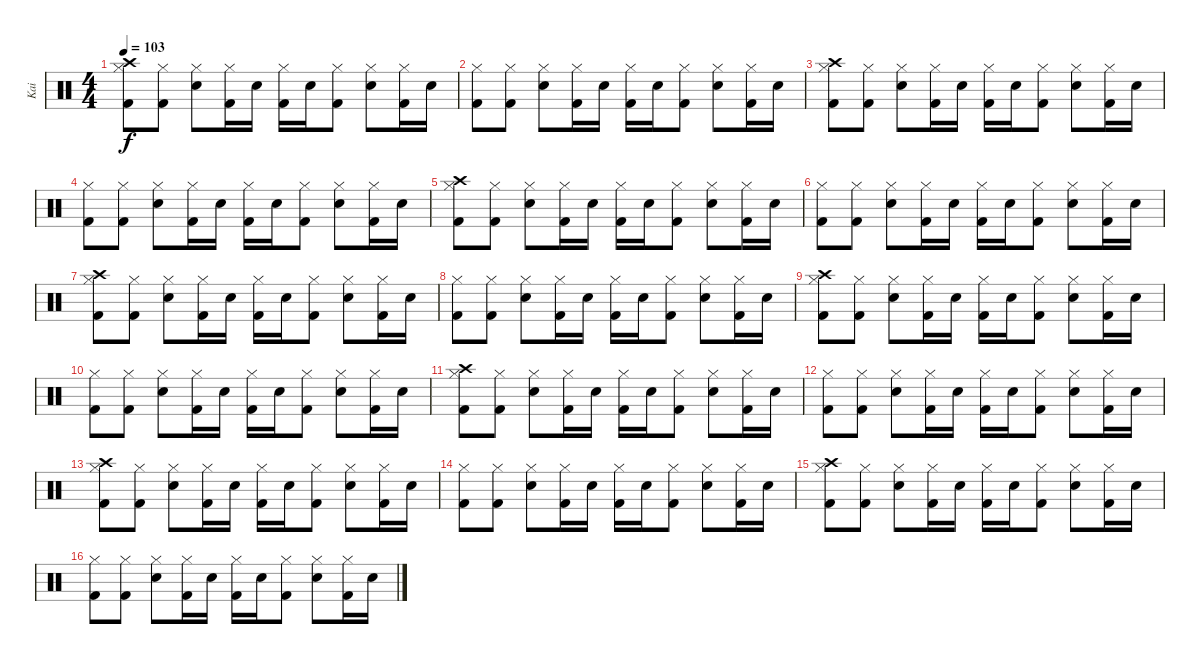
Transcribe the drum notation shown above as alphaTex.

\track ("Kai" "Kai") {instrument percussion}
\staff {score}
\articulation defaults
\ts (4 4)
\tempo 103
\clef neutral
\ks c
("Crash high (hit)" "Hi-Hat (closed)" "Kick (hit) 2").8{dy f} ("Hi-Hat (closed)" "Kick (hit) 2").8 ("Hi-Hat (closed)" "Electric Snare (hit)").8 ("Hi-Hat (closed)" "Kick (hit) 2").16 "Electric Snare (hit)".16 ("Hi-Hat (closed)" "Kick (hit) 2").16 "Electric Snare (hit)".16 ("Hi-Hat (closed)" "Kick (hit) 2").8 ("Hi-Hat (closed)" "Electric Snare (hit)").8 ("Hi-Hat (closed)" "Kick (hit) 2").16 "Electric Snare (hit)".16 |
("Hi-Hat (closed)" "Kick (hit) 2").8 ("Hi-Hat (closed)" "Kick (hit) 2").8 ("Hi-Hat (closed)" "Electric Snare (hit)").8 ("Hi-Hat (closed)" "Kick (hit) 2").16 "Electric Snare (hit)".16 ("Hi-Hat (closed)" "Kick (hit) 2").16 "Electric Snare (hit)".16 ("Hi-Hat (closed)" "Kick (hit) 2").8 ("Hi-Hat (closed)" "Electric Snare (hit)").8 ("Hi-Hat (closed)" "Kick (hit) 2").16 "Electric Snare (hit)".16 |
("Crash high (hit)" "Hi-Hat (closed)" "Kick (hit) 2").8 ("Hi-Hat (closed)" "Kick (hit) 2").8 ("Hi-Hat (closed)" "Electric Snare (hit)").8 ("Hi-Hat (closed)" "Kick (hit) 2").16 "Electric Snare (hit)".16 ("Hi-Hat (closed)" "Kick (hit) 2").16 "Electric Snare (hit)".16 ("Hi-Hat (closed)" "Kick (hit) 2").8 ("Hi-Hat (closed)" "Electric Snare (hit)").8 ("Hi-Hat (closed)" "Kick (hit) 2").16 "Electric Snare (hit)".16 |
("Hi-Hat (closed)" "Kick (hit) 2").8 ("Hi-Hat (closed)" "Kick (hit) 2").8 ("Hi-Hat (closed)" "Electric Snare (hit)").8 ("Hi-Hat (closed)" "Kick (hit) 2").16 "Electric Snare (hit)".16 ("Hi-Hat (closed)" "Kick (hit) 2").16 "Electric Snare (hit)".16 ("Hi-Hat (closed)" "Kick (hit) 2").8 ("Hi-Hat (closed)" "Electric Snare (hit)").8 ("Hi-Hat (closed)" "Kick (hit) 2").16 "Electric Snare (hit)".16 |
("Crash high (hit)" "Hi-Hat (closed)" "Kick (hit) 2").8 ("Hi-Hat (closed)" "Kick (hit) 2").8 ("Hi-Hat (closed)" "Electric Snare (hit)").8 ("Hi-Hat (closed)" "Kick (hit) 2").16 "Electric Snare (hit)".16 ("Hi-Hat (closed)" "Kick (hit) 2").16 "Electric Snare (hit)".16 ("Hi-Hat (closed)" "Kick (hit) 2").8 ("Hi-Hat (closed)" "Electric Snare (hit)").8 ("Hi-Hat (closed)" "Kick (hit) 2").16 "Electric Snare (hit)".16 |
("Hi-Hat (closed)" "Kick (hit) 2").8 ("Hi-Hat (closed)" "Kick (hit) 2").8 ("Hi-Hat (closed)" "Electric Snare (hit)").8 ("Hi-Hat (closed)" "Kick (hit) 2").16 "Electric Snare (hit)".16 ("Hi-Hat (closed)" "Kick (hit) 2").16 "Electric Snare (hit)".16 ("Hi-Hat (closed)" "Kick (hit) 2").8 ("Hi-Hat (closed)" "Electric Snare (hit)").8 ("Hi-Hat (closed)" "Kick (hit) 2").16 "Electric Snare (hit)".16 |
("Crash high (hit)" "Hi-Hat (closed)" "Kick (hit) 2").8 ("Hi-Hat (closed)" "Kick (hit) 2").8 ("Hi-Hat (closed)" "Electric Snare (hit)").8 ("Hi-Hat (closed)" "Kick (hit) 2").16 "Electric Snare (hit)".16 ("Hi-Hat (closed)" "Kick (hit) 2").16 "Electric Snare (hit)".16 ("Hi-Hat (closed)" "Kick (hit) 2").8 ("Hi-Hat (closed)" "Electric Snare (hit)").8 ("Hi-Hat (closed)" "Kick (hit) 2").16 "Electric Snare (hit)".16 |
("Hi-Hat (closed)" "Kick (hit) 2").8 ("Hi-Hat (closed)" "Kick (hit) 2").8 ("Hi-Hat (closed)" "Electric Snare (hit)").8 ("Hi-Hat (closed)" "Kick (hit) 2").16 "Electric Snare (hit)".16 ("Hi-Hat (closed)" "Kick (hit) 2").16 "Electric Snare (hit)".16 ("Hi-Hat (closed)" "Kick (hit) 2").8 ("Hi-Hat (closed)" "Electric Snare (hit)").8 ("Hi-Hat (closed)" "Kick (hit) 2").16 "Electric Snare (hit)".16 |
("Crash high (hit)" "Hi-Hat (closed)" "Kick (hit) 2").8 ("Hi-Hat (closed)" "Kick (hit) 2").8 ("Hi-Hat (closed)" "Electric Snare (hit)").8 ("Hi-Hat (closed)" "Kick (hit) 2").16 "Electric Snare (hit)".16 ("Hi-Hat (closed)" "Kick (hit) 2").16 "Electric Snare (hit)".16 ("Hi-Hat (closed)" "Kick (hit) 2").8 ("Hi-Hat (closed)" "Electric Snare (hit)").8 ("Hi-Hat (closed)" "Kick (hit) 2").16 "Electric Snare (hit)".16 |
("Hi-Hat (closed)" "Kick (hit) 2").8 ("Hi-Hat (closed)" "Kick (hit) 2").8 ("Hi-Hat (closed)" "Electric Snare (hit)").8 ("Hi-Hat (closed)" "Kick (hit) 2").16 "Electric Snare (hit)".16 ("Hi-Hat (closed)" "Kick (hit) 2").16 "Electric Snare (hit)".16 ("Hi-Hat (closed)" "Kick (hit) 2").8 ("Hi-Hat (closed)" "Electric Snare (hit)").8 ("Hi-Hat (closed)" "Kick (hit) 2").16 "Electric Snare (hit)".16 |
("Crash high (hit)" "Hi-Hat (closed)" "Kick (hit) 2").8 ("Hi-Hat (closed)" "Kick (hit) 2").8 ("Hi-Hat (closed)" "Electric Snare (hit)").8 ("Hi-Hat (closed)" "Kick (hit) 2").16 "Electric Snare (hit)".16 ("Hi-Hat (closed)" "Kick (hit) 2").16 "Electric Snare (hit)".16 ("Hi-Hat (closed)" "Kick (hit) 2").8 ("Hi-Hat (closed)" "Electric Snare (hit)").8 ("Hi-Hat (closed)" "Kick (hit) 2").16 "Electric Snare (hit)".16 |
("Hi-Hat (closed)" "Kick (hit) 2").8 ("Hi-Hat (closed)" "Kick (hit) 2").8 ("Hi-Hat (closed)" "Electric Snare (hit)").8 ("Hi-Hat (closed)" "Kick (hit) 2").16 "Electric Snare (hit)".16 ("Hi-Hat (closed)" "Kick (hit) 2").16 "Electric Snare (hit)".16 ("Hi-Hat (closed)" "Kick (hit) 2").8 ("Hi-Hat (closed)" "Electric Snare (hit)").8 ("Hi-Hat (closed)" "Kick (hit) 2").16 "Electric Snare (hit)".16 |
("Crash high (hit)" "Hi-Hat (closed)" "Kick (hit) 2").8 ("Hi-Hat (closed)" "Kick (hit) 2").8 ("Hi-Hat (closed)" "Electric Snare (hit)").8 ("Hi-Hat (closed)" "Kick (hit) 2").16 "Electric Snare (hit)".16 ("Hi-Hat (closed)" "Kick (hit) 2").16 "Electric Snare (hit)".16 ("Hi-Hat (closed)" "Kick (hit) 2").8 ("Hi-Hat (closed)" "Electric Snare (hit)").8 ("Hi-Hat (closed)" "Kick (hit) 2").16 "Electric Snare (hit)".16 |
("Hi-Hat (closed)" "Kick (hit) 2").8 ("Hi-Hat (closed)" "Kick (hit) 2").8 ("Hi-Hat (closed)" "Electric Snare (hit)").8 ("Hi-Hat (closed)" "Kick (hit) 2").16 "Electric Snare (hit)".16 ("Hi-Hat (closed)" "Kick (hit) 2").16 "Electric Snare (hit)".16 ("Hi-Hat (closed)" "Kick (hit) 2").8 ("Hi-Hat (closed)" "Electric Snare (hit)").8 ("Hi-Hat (closed)" "Kick (hit) 2").16 "Electric Snare (hit)".16 |
("Crash high (hit)" "Hi-Hat (closed)" "Kick (hit) 2").8 ("Hi-Hat (closed)" "Kick (hit) 2").8 ("Hi-Hat (closed)" "Electric Snare (hit)").8 ("Hi-Hat (closed)" "Kick (hit) 2").16 "Electric Snare (hit)".16 ("Hi-Hat (closed)" "Kick (hit) 2").16 "Electric Snare (hit)".16 ("Hi-Hat (closed)" "Kick (hit) 2").8 ("Hi-Hat (closed)" "Electric Snare (hit)").8 ("Hi-Hat (closed)" "Kick (hit) 2").16 "Electric Snare (hit)".16 |
("Hi-Hat (closed)" "Kick (hit) 2").8 ("Hi-Hat (closed)" "Kick (hit) 2").8 ("Hi-Hat (closed)" "Electric Snare (hit)").8 ("Hi-Hat (closed)" "Kick (hit) 2").16 "Electric Snare (hit)".16 ("Hi-Hat (closed)" "Kick (hit) 2").16 "Electric Snare (hit)".16 ("Hi-Hat (closed)" "Kick (hit) 2").8 ("Hi-Hat (closed)" "Electric Snare (hit)").8 ("Hi-Hat (closed)" "Kick (hit) 2").16 "Electric Snare (hit)".16
